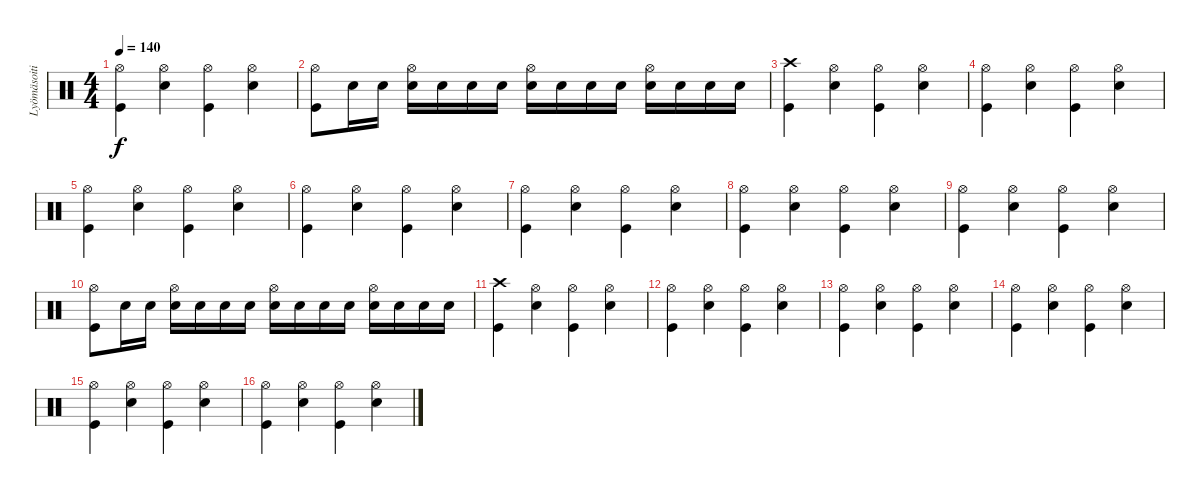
\track ("Lyömäsoitin" "Lyömäsoiti") {instrument percussion}
\staff {score}
\articulation defaults
\ts (4 4)
\tempo 140
\clef neutral
\ks c
("Kick (hit)" "Hi-Hat (open)").4{dy f} ("Electric Snare (hit)" "Hi-Hat (open)").4 ("Kick (hit)" "Hi-Hat (open)").4 ("Electric Snare (hit)" "Hi-Hat (open)").4 |
("Kick (hit)" "Hi-Hat (open)").8 "Electric Snare (hit)".16 "Electric Snare (hit)".16 ("Electric Snare (hit)" "Hi-Hat (open)").16 "Electric Snare (hit)".16 "Electric Snare (hit)".16 "Electric Snare (hit)".16 ("Electric Snare (hit)" "Hi-Hat (open)").16 "Electric Snare (hit)".16 "Electric Snare (hit)".16 "Electric Snare (hit)".16 ("Electric Snare (hit)" "Hi-Hat (open)").16 "Electric Snare (hit)".16 "Electric Snare (hit)".16 "Electric Snare (hit)".16 |
("Kick (hit)" "Crash high (hit)").4 ("Electric Snare (hit)" "Hi-Hat (open)").4 ("Kick (hit)" "Hi-Hat (open)").4 ("Electric Snare (hit)" "Hi-Hat (open)").4 |
("Kick (hit)" "Hi-Hat (open)").4 ("Electric Snare (hit)" "Hi-Hat (open)").4 ("Kick (hit)" "Hi-Hat (open)").4 ("Electric Snare (hit)" "Hi-Hat (open)").4 |
("Kick (hit)" "Hi-Hat (open)").4 ("Electric Snare (hit)" "Hi-Hat (open)").4 ("Kick (hit)" "Hi-Hat (open)").4 ("Electric Snare (hit)" "Hi-Hat (open)").4 |
("Kick (hit)" "Hi-Hat (open)").4 ("Electric Snare (hit)" "Hi-Hat (open)").4 ("Kick (hit)" "Hi-Hat (open)").4 ("Electric Snare (hit)" "Hi-Hat (open)").4 |
("Kick (hit)" "Hi-Hat (open)").4 ("Electric Snare (hit)" "Hi-Hat (open)").4 ("Kick (hit)" "Hi-Hat (open)").4 ("Electric Snare (hit)" "Hi-Hat (open)").4 |
("Kick (hit)" "Hi-Hat (open)").4 ("Electric Snare (hit)" "Hi-Hat (open)").4 ("Kick (hit)" "Hi-Hat (open)").4 ("Electric Snare (hit)" "Hi-Hat (open)").4 |
("Kick (hit)" "Hi-Hat (open)").4 ("Electric Snare (hit)" "Hi-Hat (open)").4 ("Kick (hit)" "Hi-Hat (open)").4 ("Electric Snare (hit)" "Hi-Hat (open)").4 |
("Kick (hit)" "Hi-Hat (open)").8 "Electric Snare (hit)".16 "Electric Snare (hit)".16 ("Electric Snare (hit)" "Hi-Hat (open)").16 "Electric Snare (hit)".16 "Electric Snare (hit)".16 "Electric Snare (hit)".16 ("Electric Snare (hit)" "Hi-Hat (open)").16 "Electric Snare (hit)".16 "Electric Snare (hit)".16 "Electric Snare (hit)".16 ("Electric Snare (hit)" "Hi-Hat (open)").16 "Electric Snare (hit)".16 "Electric Snare (hit)".16 "Electric Snare (hit)".16 |
("Kick (hit)" "Crash high (hit)").4 ("Electric Snare (hit)" "Hi-Hat (open)").4 ("Kick (hit)" "Hi-Hat (open)").4 ("Electric Snare (hit)" "Hi-Hat (open)").4 |
("Kick (hit)" "Hi-Hat (open)").4 ("Electric Snare (hit)" "Hi-Hat (open)").4 ("Kick (hit)" "Hi-Hat (open)").4 ("Electric Snare (hit)" "Hi-Hat (open)").4 |
("Kick (hit)" "Hi-Hat (open)").4 ("Electric Snare (hit)" "Hi-Hat (open)").4 ("Kick (hit)" "Hi-Hat (open)").4 ("Electric Snare (hit)" "Hi-Hat (open)").4 |
("Kick (hit)" "Hi-Hat (open)").4 ("Electric Snare (hit)" "Hi-Hat (open)").4 ("Kick (hit)" "Hi-Hat (open)").4 ("Electric Snare (hit)" "Hi-Hat (open)").4 |
("Kick (hit)" "Hi-Hat (open)").4 ("Electric Snare (hit)" "Hi-Hat (open)").4 ("Kick (hit)" "Hi-Hat (open)").4 ("Electric Snare (hit)" "Hi-Hat (open)").4 |
("Kick (hit)" "Hi-Hat (open)").4 ("Electric Snare (hit)" "Hi-Hat (open)").4 ("Kick (hit)" "Hi-Hat (open)").4 ("Electric Snare (hit)" "Hi-Hat (open)").4
